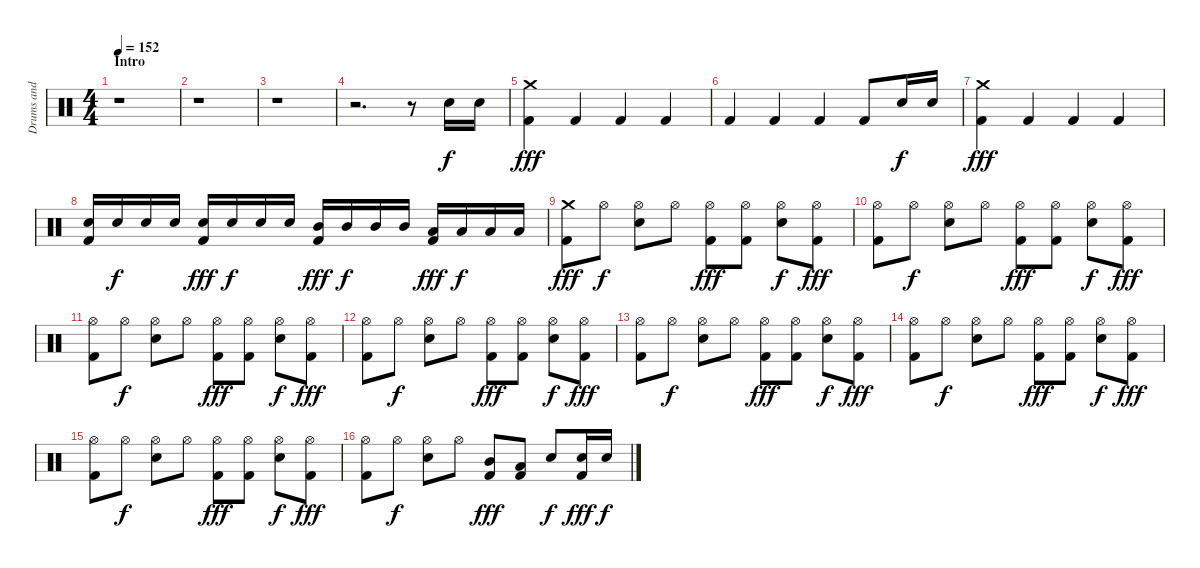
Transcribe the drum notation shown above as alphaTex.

\track ("Drums and Percussion" "Drums and ") {instrument percussion}
\staff {score}
\articulation defaults
\ts (4 4)
\section ("" "Intro")
\tempo 152
\clef neutral
\ks c
r.1{dy f} |
r.1 |
r.1 |
r.2{d} r.8 "Snare (hit) 2".16 "Snare (hit) 2".16 |
("Crash medium (hit)" "Kick (hit) 2").4{dy fff} "Kick (hit) 2".4 "Kick (hit) 2".4 "Kick (hit) 2".4 |
"Kick (hit) 2".4 "Kick (hit) 2".4 "Kick (hit) 2".4 "Kick (hit) 2".8 "Snare (hit) 2".16{dy f} "Snare (hit) 2".16 |
("Crash medium (hit)" "Kick (hit) 2").4{dy fff} "Kick (hit) 2".4 "Kick (hit) 2".4 "Kick (hit) 2".4 |
("Snare (hit) 2" "Kick (hit) 2").16 "Snare (hit) 2".16{dy f} "Snare (hit) 2".16 "Snare (hit) 2".16 ("Snare (hit) 2" "Kick (hit) 2").16{dy fff} "Snare (hit) 2".16{dy f} "Snare (hit) 2".16 "Snare (hit) 2".16 ("Mid Tom (hit)" "Kick (hit) 2").16{dy fff} "Mid Tom (hit)".16{dy f} "Mid Tom (hit)".16 "Mid Tom (hit)".16 ("Low Tom (hit)" "Kick (hit) 2").16{dy fff} "Low Tom (hit)".16{dy f} "Low Tom (hit)".16 "Low Tom (hit)".16 |
("Crash medium (hit)" "Kick (hit) 2").8{dy fff} "Hi-Hat (open)".8{dy f} ("Hi-Hat (open)" "Snare (hit) 2").8 "Hi-Hat (open)".8 ("Hi-Hat (open)" "Kick (hit) 2").8{dy fff} ("Hi-Hat (open)" "Kick (hit) 2").8 ("Hi-Hat (open)" "Snare (hit) 2").8{dy f} ("Hi-Hat (open)" "Kick (hit) 2").8{dy fff} |
("Hi-Hat (open)" "Kick (hit) 2").8 "Hi-Hat (open)".8{dy f} ("Hi-Hat (open)" "Snare (hit) 2").8 "Hi-Hat (open)".8 ("Hi-Hat (open)" "Kick (hit) 2").8{dy fff} ("Hi-Hat (open)" "Kick (hit) 2").8 ("Hi-Hat (open)" "Snare (hit) 2").8{dy f} ("Hi-Hat (open)" "Kick (hit) 2").8{dy fff} |
("Hi-Hat (open)" "Kick (hit) 2").8 "Hi-Hat (open)".8{dy f} ("Hi-Hat (open)" "Snare (hit) 2").8 "Hi-Hat (open)".8 ("Hi-Hat (open)" "Kick (hit) 2").8{dy fff} ("Hi-Hat (open)" "Kick (hit) 2").8 ("Hi-Hat (open)" "Snare (hit) 2").8{dy f} ("Hi-Hat (open)" "Kick (hit) 2").8{dy fff} |
("Hi-Hat (open)" "Kick (hit) 2").8 "Hi-Hat (open)".8{dy f} ("Hi-Hat (open)" "Snare (hit) 2").8 "Hi-Hat (open)".8 ("Hi-Hat (open)" "Kick (hit) 2").8{dy fff} ("Hi-Hat (open)" "Kick (hit) 2").8 ("Hi-Hat (open)" "Snare (hit) 2").8{dy f} ("Hi-Hat (open)" "Kick (hit) 2").8{dy fff} |
("Hi-Hat (open)" "Kick (hit) 2").8 "Hi-Hat (open)".8{dy f} ("Hi-Hat (open)" "Snare (hit) 2").8 "Hi-Hat (open)".8 ("Hi-Hat (open)" "Kick (hit) 2").8{dy fff} ("Hi-Hat (open)" "Kick (hit) 2").8 ("Hi-Hat (open)" "Snare (hit) 2").8{dy f} ("Hi-Hat (open)" "Kick (hit) 2").8{dy fff} |
("Hi-Hat (open)" "Kick (hit) 2").8 "Hi-Hat (open)".8{dy f} ("Hi-Hat (open)" "Snare (hit) 2").8 "Hi-Hat (open)".8 ("Hi-Hat (open)" "Kick (hit) 2").8{dy fff} ("Hi-Hat (open)" "Kick (hit) 2").8 ("Hi-Hat (open)" "Snare (hit) 2").8{dy f} ("Hi-Hat (open)" "Kick (hit) 2").8{dy fff} |
("Hi-Hat (open)" "Kick (hit) 2").8 "Hi-Hat (open)".8{dy f} ("Hi-Hat (open)" "Snare (hit) 2").8 "Hi-Hat (open)".8 ("Hi-Hat (open)" "Kick (hit) 2").8{dy fff} ("Hi-Hat (open)" "Kick (hit) 2").8 ("Hi-Hat (open)" "Snare (hit) 2").8{dy f} ("Hi-Hat (open)" "Kick (hit) 2").8{dy fff} |
("Hi-Hat (open)" "Kick (hit) 2").8 "Hi-Hat (open)".8{dy f} ("Hi-Hat (open)" "Snare (hit) 2").8 "Hi-Hat (open)".8 ("Mid Tom (hit)" "Kick (hit) 2").8{dy fff} ("Low Tom (hit)" "Kick (hit) 2").8 "Snare (hit) 2".8{dy f} ("Snare (hit) 2" "Kick (hit) 2").16{dy fff} "Snare (hit) 2".16{dy f}
